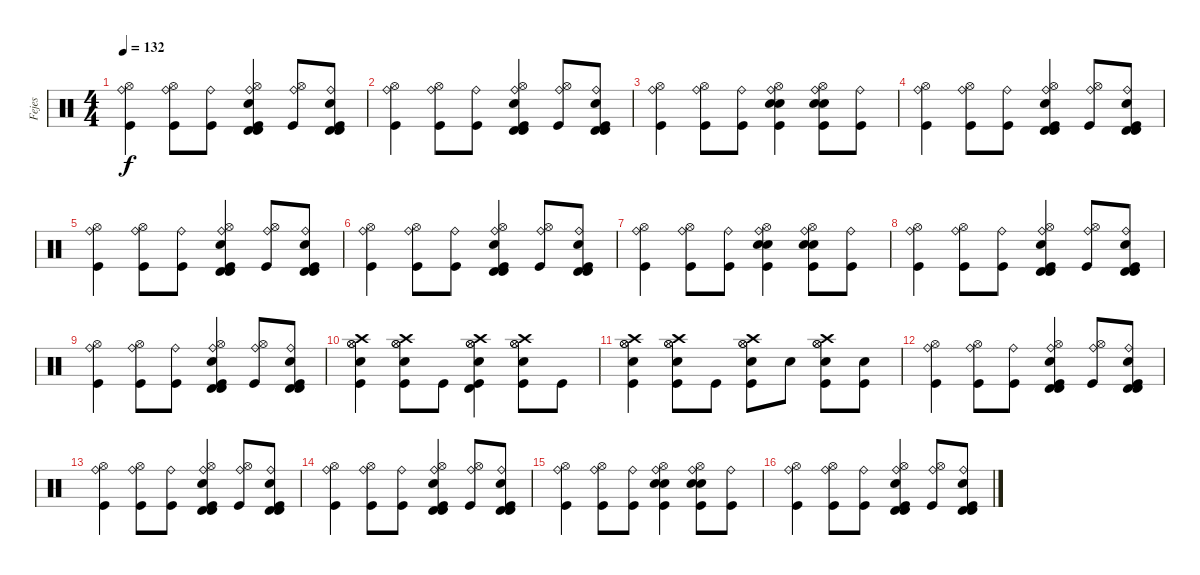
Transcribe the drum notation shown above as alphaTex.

\track ("Fejes" "Fejes") {instrument percussion}
\staff {score}
\articulation defaults
\ts (4 4)
\tempo 132
\clef neutral
\ks c
("Ride (bell)" "Hi-Hat (open)" "Kick (hit)").4{dy f} ("Ride (bell)" "Hi-Hat (open)" "Kick (hit)").8 ("Ride (bell)" "Kick (hit)").8 ("Ride (bell)" "Hi-Hat (open)" "Snare (hit) 2" "Timbale high (hit)" "Timbale high (hit)" "Kick (hit)").4 ("Ride (bell)" "Hi-Hat (open)" "Kick (hit)").8 ("Ride (bell)" "Snare (hit) 2" "Timbale high (hit)" "Timbale high (hit)" "Kick (hit)").8 |
("Ride (bell)" "Hi-Hat (open)" "Kick (hit)").4 ("Ride (bell)" "Hi-Hat (open)" "Kick (hit)").8 ("Ride (bell)" "Kick (hit)").8 ("Ride (bell)" "Hi-Hat (open)" "Snare (hit) 2" "Timbale high (hit)" "Timbale high (hit)" "Kick (hit)").4 ("Ride (bell)" "Hi-Hat (open)" "Kick (hit)").8 ("Ride (bell)" "Snare (hit) 2" "Timbale high (hit)" "Timbale high (hit)" "Kick (hit)").8 |
("Ride (bell)" "Hi-Hat (open)" "Kick (hit)").4 ("Ride (bell)" "Hi-Hat (open)" "Kick (hit)").8 ("Ride (bell)" "Kick (hit)").8 ("Ride (bell)" "Hi-Hat (open)" "Snare (hit) 2" "Snare (hit) 2" "Kick (hit)").4 ("Ride (bell)" "Hi-Hat (open)" "Snare (hit) 2" "Snare (hit) 2" "Kick (hit)").8 ("Ride (bell)" "Kick (hit)").8 |
("Ride (bell)" "Hi-Hat (open)" "Kick (hit)").4 ("Ride (bell)" "Hi-Hat (open)" "Kick (hit)").8 ("Ride (bell)" "Kick (hit)").8 ("Ride (bell)" "Hi-Hat (open)" "Snare (hit) 2" "Timbale high (hit)" "Timbale high (hit)" "Kick (hit)").4 ("Ride (bell)" "Hi-Hat (open)" "Kick (hit)").8 ("Ride (bell)" "Snare (hit) 2" "Timbale high (hit)" "Timbale high (hit)" "Kick (hit)").8 |
("Ride (bell)" "Hi-Hat (open)" "Kick (hit)").4 ("Ride (bell)" "Hi-Hat (open)" "Kick (hit)").8 ("Ride (bell)" "Kick (hit)").8 ("Ride (bell)" "Hi-Hat (open)" "Snare (hit) 2" "Timbale high (hit)" "Timbale high (hit)" "Kick (hit)").4 ("Ride (bell)" "Hi-Hat (open)" "Kick (hit)").8 ("Ride (bell)" "Snare (hit) 2" "Timbale high (hit)" "Timbale high (hit)" "Kick (hit)").8 |
("Ride (bell)" "Hi-Hat (open)" "Kick (hit)").4 ("Ride (bell)" "Hi-Hat (open)" "Kick (hit)").8 ("Ride (bell)" "Kick (hit)").8 ("Ride (bell)" "Hi-Hat (open)" "Snare (hit) 2" "Timbale high (hit)" "Timbale high (hit)" "Kick (hit)").4 ("Ride (bell)" "Hi-Hat (open)" "Kick (hit)").8 ("Ride (bell)" "Snare (hit) 2" "Timbale high (hit)" "Timbale high (hit)" "Kick (hit)").8 |
("Ride (bell)" "Hi-Hat (open)" "Kick (hit)").4 ("Ride (bell)" "Hi-Hat (open)" "Kick (hit)").8 ("Ride (bell)" "Kick (hit)").8 ("Ride (bell)" "Hi-Hat (open)" "Snare (hit) 2" "Snare (hit) 2" "Kick (hit)").4 ("Ride (bell)" "Hi-Hat (open)" "Snare (hit) 2" "Snare (hit) 2" "Kick (hit)").8 ("Ride (bell)" "Kick (hit)").8 |
("Ride (bell)" "Hi-Hat (open)" "Kick (hit)").4 ("Ride (bell)" "Hi-Hat (open)" "Kick (hit)").8 ("Ride (bell)" "Kick (hit)").8 ("Ride (bell)" "Hi-Hat (open)" "Snare (hit) 2" "Timbale high (hit)" "Timbale high (hit)" "Kick (hit)").4 ("Ride (bell)" "Hi-Hat (open)" "Kick (hit)").8 ("Ride (bell)" "Snare (hit) 2" "Timbale high (hit)" "Timbale high (hit)" "Kick (hit)").8 |
("Ride (bell)" "Hi-Hat (open)" "Kick (hit)").4 ("Ride (bell)" "Hi-Hat (open)" "Kick (hit)").8 ("Ride (bell)" "Kick (hit)").8 ("Ride (bell)" "Hi-Hat (open)" "Snare (hit) 2" "Timbale high (hit)" "Timbale high (hit)" "Kick (hit)").4 ("Ride (bell)" "Hi-Hat (open)" "Kick (hit)").8 ("Ride (bell)" "Snare (hit) 2" "Timbale high (hit)" "Timbale high (hit)" "Kick (hit)").8 |
("Hi-Hat (open)" "Hi-Hat (open)" "Snare (hit) 2" "Crash high (hit)" "Kick (hit)").4 ("Hi-Hat (open)" "Hi-Hat (open)" "Snare (hit) 2" "Crash high (hit)" "Kick (hit)").8 "Kick (hit)".8 ("Hi-Hat (open)" "Hi-Hat (open)" "Snare (hit) 2" "Crash high (hit)" "Timbale high (hit)" "Kick (hit)").4 ("Hi-Hat (open)" "Hi-Hat (open)" "Snare (hit) 2" "Crash high (hit)" "Kick (hit)").8 "Kick (hit)".8 |
("Hi-Hat (open)" "Hi-Hat (open)" "Snare (hit) 2" "Crash high (hit)" "Kick (hit)").4 ("Hi-Hat (open)" "Hi-Hat (open)" "Snare (hit) 2" "Crash high (hit)" "Kick (hit)").8 "Kick (hit)".8 ("Hi-Hat (open)" "Hi-Hat (open)" "Snare (hit) 2" "Crash high (hit)" "Kick (hit)").8 "Snare (hit) 2".8 ("Hi-Hat (open)" "Hi-Hat (open)" "Snare (hit) 2" "Crash high (hit)" "Kick (hit)").8 ("Snare (hit) 2" "Kick (hit)").8 |
("Ride (bell)" "Hi-Hat (open)" "Kick (hit)").4 ("Ride (bell)" "Hi-Hat (open)" "Kick (hit)").8 ("Ride (bell)" "Kick (hit)").8 ("Ride (bell)" "Hi-Hat (open)" "Snare (hit) 2" "Timbale high (hit)" "Timbale high (hit)" "Kick (hit)").4 ("Ride (bell)" "Hi-Hat (open)" "Kick (hit)").8 ("Ride (bell)" "Snare (hit) 2" "Timbale high (hit)" "Timbale high (hit)" "Kick (hit)").8 |
("Ride (bell)" "Hi-Hat (open)" "Kick (hit)").4 ("Ride (bell)" "Hi-Hat (open)" "Kick (hit)").8 ("Ride (bell)" "Kick (hit)").8 ("Ride (bell)" "Hi-Hat (open)" "Snare (hit) 2" "Timbale high (hit)" "Timbale high (hit)" "Kick (hit)").4 ("Ride (bell)" "Hi-Hat (open)" "Kick (hit)").8 ("Ride (bell)" "Snare (hit) 2" "Timbale high (hit)" "Timbale high (hit)" "Kick (hit)").8 |
("Ride (bell)" "Hi-Hat (open)" "Kick (hit)").4 ("Ride (bell)" "Hi-Hat (open)" "Kick (hit)").8 ("Ride (bell)" "Kick (hit)").8 ("Ride (bell)" "Hi-Hat (open)" "Snare (hit) 2" "Timbale high (hit)" "Timbale high (hit)" "Kick (hit)").4 ("Ride (bell)" "Hi-Hat (open)" "Kick (hit)").8 ("Ride (bell)" "Snare (hit) 2" "Timbale high (hit)" "Timbale high (hit)" "Kick (hit)").8 |
("Ride (bell)" "Hi-Hat (open)" "Kick (hit)").4 ("Ride (bell)" "Hi-Hat (open)" "Kick (hit)").8 ("Ride (bell)" "Kick (hit)").8 ("Ride (bell)" "Hi-Hat (open)" "Snare (hit) 2" "Snare (hit) 2" "Kick (hit)").4 ("Ride (bell)" "Hi-Hat (open)" "Snare (hit) 2" "Snare (hit) 2" "Kick (hit)").8 ("Ride (bell)" "Kick (hit)").8 |
("Ride (bell)" "Hi-Hat (open)" "Kick (hit)").4 ("Ride (bell)" "Hi-Hat (open)" "Kick (hit)").8 ("Ride (bell)" "Kick (hit)").8 ("Ride (bell)" "Hi-Hat (open)" "Snare (hit) 2" "Timbale high (hit)" "Timbale high (hit)" "Kick (hit)").4 ("Ride (bell)" "Hi-Hat (open)" "Kick (hit)").8 ("Ride (bell)" "Snare (hit) 2" "Timbale high (hit)" "Timbale high (hit)" "Kick (hit)").8
